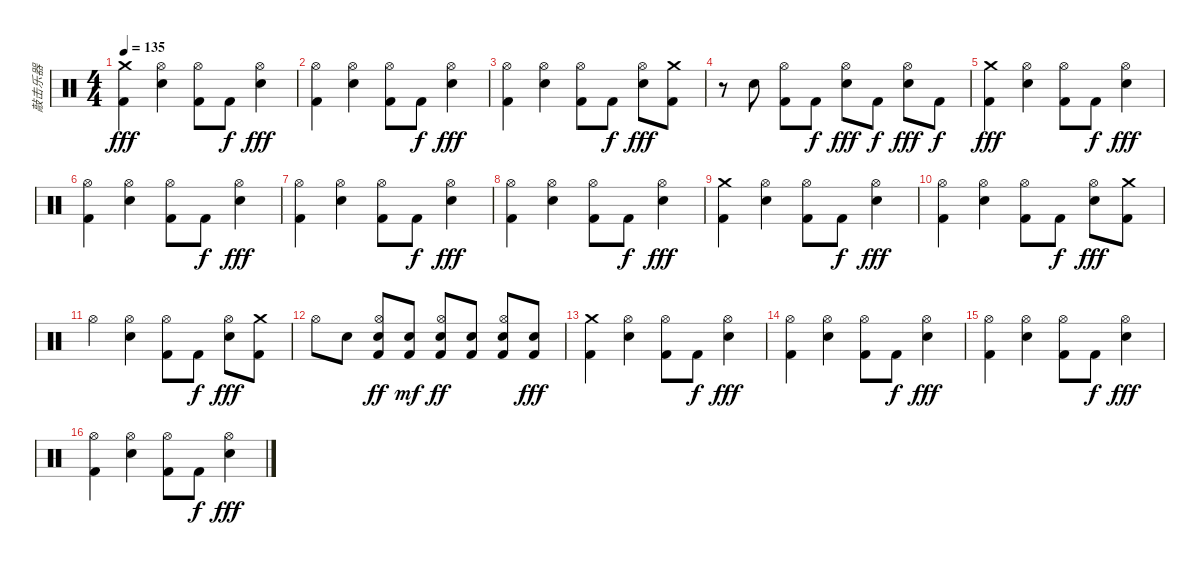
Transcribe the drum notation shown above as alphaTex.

\track ("敲击乐器" "敲击乐器") {instrument percussion}
\staff {score}
\articulation defaults
\ts (4 4)
\tempo 135
\clef neutral
\ks c
("Crash medium (hit)" "Kick (hit) 2").4{dy fff} ("Hi-Hat (open)" "Electric Snare (hit)").4 ("Hi-Hat (open)" "Kick (hit) 2").8 "Kick (hit) 2".8{dy f} ("Hi-Hat (open)" "Electric Snare (hit)").4{dy fff} |
("Hi-Hat (open)" "Kick (hit) 2").4 ("Hi-Hat (open)" "Electric Snare (hit)").4 ("Hi-Hat (open)" "Kick (hit) 2").8 "Kick (hit) 2".8{dy f} ("Hi-Hat (open)" "Electric Snare (hit)").4{dy fff} |
("Hi-Hat (open)" "Kick (hit) 2").4 ("Hi-Hat (open)" "Electric Snare (hit)").4 ("Hi-Hat (open)" "Kick (hit) 2").8 "Kick (hit) 2".8{dy f} ("Hi-Hat (open)" "Electric Snare (hit)").8{dy fff} ("Crash medium (hit)" "Kick (hit) 2").8 |
r.8 "Electric Snare (hit)".8 ("Hi-Hat (open)" "Kick (hit) 2").8 "Kick (hit) 2".8{dy f} ("Electric Snare (hit)" "Hi-Hat (open)").8{dy fff} "Kick (hit) 2".8{dy f} ("Electric Snare (hit)" "Hi-Hat (open)").8{dy fff} "Kick (hit) 2".8{dy f} |
("Crash medium (hit)" "Kick (hit) 2").4{dy fff} ("Hi-Hat (open)" "Electric Snare (hit)").4 ("Hi-Hat (open)" "Kick (hit) 2").8 "Kick (hit) 2".8{dy f} ("Hi-Hat (open)" "Electric Snare (hit)").4{dy fff} |
("Hi-Hat (open)" "Kick (hit) 2").4 ("Hi-Hat (open)" "Electric Snare (hit)").4 ("Hi-Hat (open)" "Kick (hit) 2").8 "Kick (hit) 2".8{dy f} ("Hi-Hat (open)" "Electric Snare (hit)").4{dy fff} |
("Hi-Hat (open)" "Kick (hit) 2").4 ("Hi-Hat (open)" "Electric Snare (hit)").4 ("Hi-Hat (open)" "Kick (hit) 2").8 "Kick (hit) 2".8{dy f} ("Hi-Hat (open)" "Electric Snare (hit)").4{dy fff} |
("Hi-Hat (open)" "Kick (hit) 2").4 ("Hi-Hat (open)" "Electric Snare (hit)").4 ("Hi-Hat (open)" "Kick (hit) 2").8 "Kick (hit) 2".8{dy f} ("Hi-Hat (open)" "Electric Snare (hit)").4{dy fff} |
("Crash medium (hit)" "Kick (hit) 2").4 ("Hi-Hat (open)" "Electric Snare (hit)").4 ("Hi-Hat (open)" "Kick (hit) 2").8 "Kick (hit) 2".8{dy f} ("Hi-Hat (open)" "Electric Snare (hit)").4{dy fff} |
("Hi-Hat (open)" "Kick (hit) 2").4 ("Hi-Hat (open)" "Electric Snare (hit)").4 ("Hi-Hat (open)" "Kick (hit) 2").8 "Kick (hit) 2".8{dy f} ("Hi-Hat (open)" "Electric Snare (hit)").8{dy fff} ("Crash medium (hit)" "Kick (hit) 2").8 |
"Hi-Hat (open)".4 ("Hi-Hat (open)" "Electric Snare (hit)").4 ("Hi-Hat (open)" "Kick (hit) 2").8 "Kick (hit) 2".8{dy f} ("Hi-Hat (open)" "Electric Snare (hit)").8{dy fff} ("Kick (hit) 2" "Crash medium (hit)").8 |
"Hi-Hat (open)".8 "Electric Snare (hit)".8 ("Electric Snare (hit)" "Kick (hit) 2" "Hi-Hat (open)").8{dy ff} ("Electric Snare (hit)" "Kick (hit) 2").8{dy mf} ("Electric Snare (hit)" "Kick (hit) 2" "Hi-Hat (open)").8{dy ff} ("Electric Snare (hit)" "Kick (hit) 2").8 ("Electric Snare (hit)" "Kick (hit) 2" "Hi-Hat (open)").8 ("Electric Snare (hit)" "Kick (hit) 2").8{dy fff} |
("Crash medium (hit)" "Kick (hit) 2").4 ("Hi-Hat (open)" "Electric Snare (hit)").4 ("Hi-Hat (open)" "Kick (hit) 2").8 "Kick (hit) 2".8{dy f} ("Hi-Hat (open)" "Electric Snare (hit)").4{dy fff} |
("Hi-Hat (open)" "Kick (hit) 2").4 ("Hi-Hat (open)" "Electric Snare (hit)").4 ("Hi-Hat (open)" "Kick (hit) 2").8 "Kick (hit) 2".8{dy f} ("Hi-Hat (open)" "Electric Snare (hit)").4{dy fff} |
("Hi-Hat (open)" "Kick (hit) 2").4 ("Hi-Hat (open)" "Electric Snare (hit)").4 ("Hi-Hat (open)" "Kick (hit) 2").8 "Kick (hit) 2".8{dy f} ("Hi-Hat (open)" "Electric Snare (hit)").4{dy fff} |
("Hi-Hat (open)" "Kick (hit) 2").4 ("Hi-Hat (open)" "Electric Snare (hit)").4 ("Hi-Hat (open)" "Kick (hit) 2").8 "Kick (hit) 2".8{dy f} ("Hi-Hat (open)" "Electric Snare (hit)").4{dy fff}
